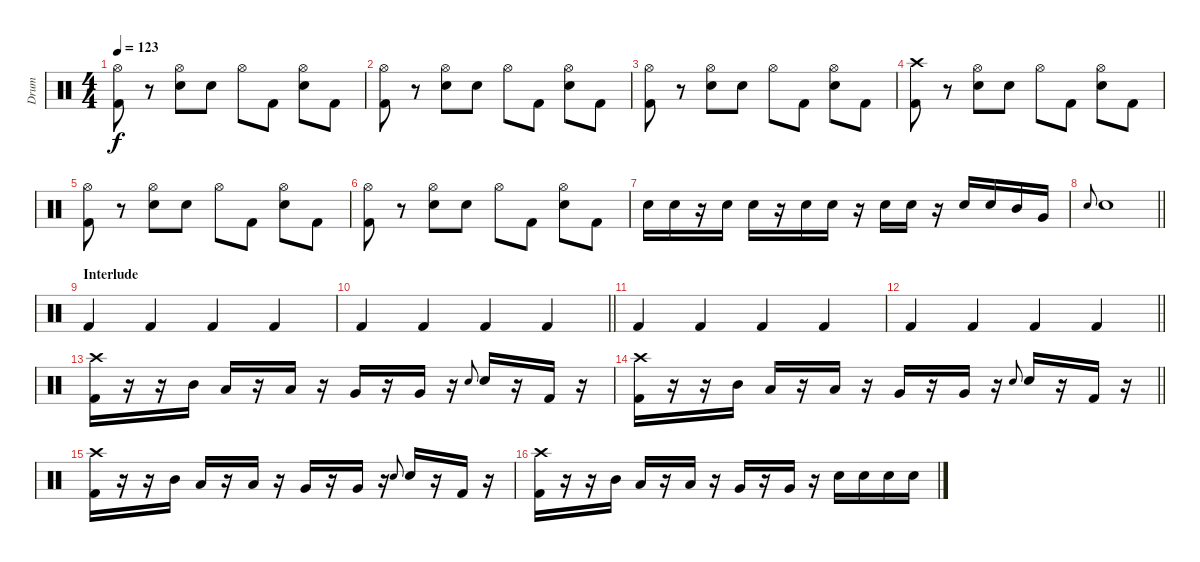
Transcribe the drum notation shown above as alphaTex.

\track ("Drum" "Drum") {instrument percussion}
\staff {score}
\articulation defaults
\ts (4 4)
\tempo 123
\clef neutral
\ks c
("Hi-Hat (open)" "Kick (hit) 2").8{dy f} r.8 ("Hi-Hat (open)" "Electric Snare (hit)").8 "Electric Snare (hit)".8 "Hi-Hat (open)".8 "Kick (hit) 2".8 ("Hi-Hat (open)" "Electric Snare (hit)").8 "Kick (hit) 2".8 |
("Hi-Hat (open)" "Kick (hit) 2").8 r.8 ("Hi-Hat (open)" "Electric Snare (hit)").8 "Electric Snare (hit)".8 "Hi-Hat (open)".8 "Kick (hit) 2".8 ("Hi-Hat (open)" "Electric Snare (hit)").8 "Kick (hit) 2".8 |
("Hi-Hat (open)" "Kick (hit) 2").8 r.8 ("Hi-Hat (open)" "Electric Snare (hit)").8 "Electric Snare (hit)".8 "Hi-Hat (open)".8 "Kick (hit) 2".8 ("Hi-Hat (open)" "Electric Snare (hit)").8 "Kick (hit) 2".8 |
("Crash high (hit)" "Kick (hit) 2").8 r.8 ("Hi-Hat (open)" "Electric Snare (hit)").8 "Electric Snare (hit)".8 "Hi-Hat (open)".8 "Kick (hit) 2".8 ("Hi-Hat (open)" "Electric Snare (hit)").8 "Kick (hit) 2".8 |
("Hi-Hat (open)" "Kick (hit) 2").8 r.8 ("Hi-Hat (open)" "Electric Snare (hit)").8 "Electric Snare (hit)".8 "Hi-Hat (open)".8 "Kick (hit) 2".8 ("Hi-Hat (open)" "Electric Snare (hit)").8 "Kick (hit) 2".8 |
("Hi-Hat (open)" "Kick (hit) 2").8 r.8 ("Hi-Hat (open)" "Electric Snare (hit)").8 "Electric Snare (hit)".8 "Hi-Hat (open)".8 "Kick (hit) 2".8 ("Hi-Hat (open)" "Electric Snare (hit)").8 "Kick (hit) 2".8 |
"Electric Snare (hit)".16 "Electric Snare (hit)".16 r.16 "Electric Snare (hit)".16 "Electric Snare (hit)".16 r.16 "Electric Snare (hit)".16 "Electric Snare (hit)".16 r.16 "Electric Snare (hit)".16 "Electric Snare (hit)".16 r.16 "Electric Snare (hit)".16 "Electric Snare (hit)".16 "Mid Tom (hit)".16 "Very Low Tom (hit)".16 |
\barLineRight lightlight "Electric Snare (hit)".8{gr onbeat} "Electric Snare (hit)".1
|
\section ("" "Interlude")
"Kick (hit) 2".4 "Kick (hit) 2".4 "Kick (hit) 2".4 "Kick (hit) 2".4 |
\barLineRight lightlight "Kick (hit) 2".4 "Kick (hit) 2".4 "Kick (hit) 2".4 "Kick (hit) 2".4
|
"Kick (hit) 2".4 "Kick (hit) 2".4 "Kick (hit) 2".4 "Kick (hit) 2".4 |
\barLineRight lightlight "Kick (hit) 2".4 "Kick (hit) 2".4 "Kick (hit) 2".4 "Kick (hit) 2".4
|
("Crash high (hit)" "Kick (hit) 2").16 r.16 r.16 "Mid Tom (hit)".16 "Low Tom (hit)".16 r.16 "Low Tom (hit)".16 r.16 "Very Low Tom (hit)".16 r.16 "Very Low Tom (hit)".16 r.16 "Electric Snare (hit)".8{gr onbeat} "Electric Snare (hit)".16 r.16 "Kick (hit) 2".16 r.16 |
\barLineRight lightlight
("Crash high (hit)" "Kick (hit) 2").16 r.16 r.16 "Mid Tom (hit)".16 "Low Tom (hit)".16 r.16 "Low Tom (hit)".16 r.16 "Very Low Tom (hit)".16 r.16 "Very Low Tom (hit)".16 r.16 "Electric Snare (hit)".8{gr onbeat} "Electric Snare (hit)".16 r.16 "Kick (hit) 2".16 r.16 |
("Crash high (hit)" "Kick (hit) 2").16 r.16 r.16 "Mid Tom (hit)".16 "Low Tom (hit)".16 r.16 "Low Tom (hit)".16 r.16 "Very Low Tom (hit)".16 r.16 "Very Low Tom (hit)".16 r.16 "Electric Snare (hit)".8{gr onbeat} "Electric Snare (hit)".16 r.16 "Kick (hit) 2".16 r.16 |
("Crash high (hit)" "Kick (hit) 2").16 r.16 r.16 "Mid Tom (hit)".16 "Low Tom (hit)".16 r.16 "Low Tom (hit)".16 r.16 "Very Low Tom (hit)".16 r.16 "Very Low Tom (hit)".16 r.16 "Electric Snare (hit)".16 "Electric Snare (hit)".16 "Electric Snare (hit)".16 "Electric Snare (hit)".16
